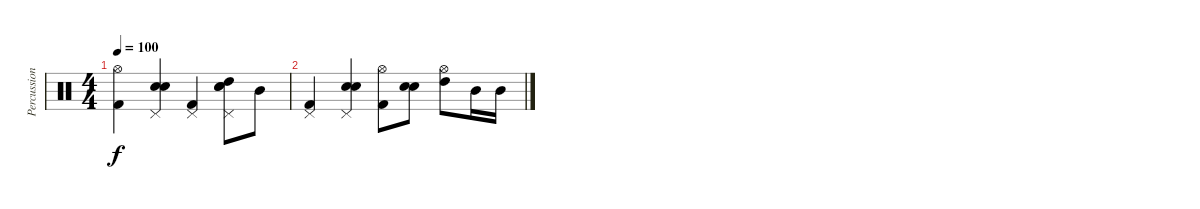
\track ("Percussioni" "Percussion") {instrument percussion}
\staff {score}
\articulation defaults
\ts (4 4)
\tempo 100
\clef neutral
\ks c
("Hi-Hat (open)" "Kick (hit) 2").4{dy f} ("Snare (hit) 2" "Electric Snare (hit)" "Pedal Hi-Hat (hit)").4 ("Kick (hit) 2" "Pedal Hi-Hat (hit)").4 ("Snare (hit) 2" "Electric Snare (hit)" "High Tom (hit)" "Pedal Hi-Hat (hit)").8 "Mid Tom (hit)".8 |
("Kick (hit) 2" "Pedal Hi-Hat (hit)").4 ("Snare (hit) 2" "Electric Snare (hit)" "Pedal Hi-Hat (hit)").4 ("Hi-Hat (open)" "Kick (hit) 2").8 ("Snare (hit) 2" "Electric Snare (hit)").8 ("Hi-Hat (open)" "High Tom (hit)").8 "Mid Tom (hit)".16 "Mid Tom (hit)".16
